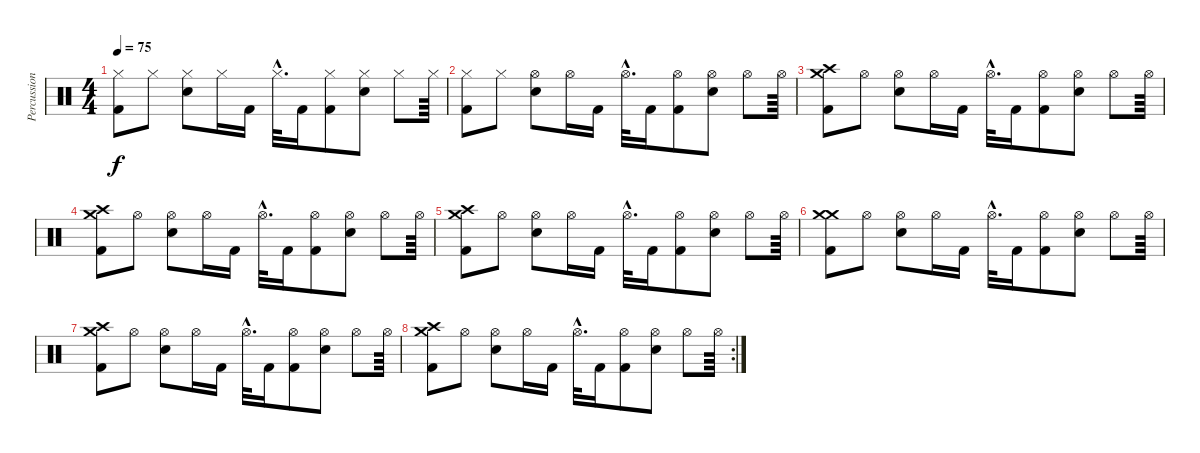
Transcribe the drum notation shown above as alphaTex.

\track ("Percussion" "Percussion") {instrument percussion}
\staff {score}
\articulation defaults
\ts (4 4)
\tempo 75
\clef neutral
\ks c
("Hi-Hat (closed)" "Kick (hit) 2").8{dy f} "Hi-Hat (closed)".8 ("Electric Snare (hit)" "Hi-Hat (closed)").8 "Hi-Hat (closed)".16 "Kick (hit) 2".16 "Hi-Hat (closed)"{hac}.32{d} "Kick (hit) 2".16 ("Kick (hit) 2" "Hi-Hat (closed)").8 ("Hi-Hat (closed)" "Electric Snare (hit)").8 "Hi-Hat (closed)".8 "Hi-Hat (closed)".64 |
("Hi-Hat (closed)" "Kick (hit) 2").8 "Hi-Hat (closed)".8 ("Electric Snare (hit)" "Hi-Hat (open)").8 "Hi-Hat (open)".16 "Kick (hit) 2".16 "Hi-Hat (open)"{hac}.32{d} "Kick (hit) 2".16 ("Kick (hit) 2" "Hi-Hat (open)").8 ("Hi-Hat (open)" "Electric Snare (hit)").8 "Hi-Hat (open)".8 "Hi-Hat (open)".64 |
("Crash high (hit)" "Kick (hit) 2" "Crash medium (hit)").8 "Hi-Hat (open)".8 ("Electric Snare (hit)" "Hi-Hat (open)").8 "Hi-Hat (open)".16 "Kick (hit) 2".16 "Hi-Hat (open)"{hac}.32{d} "Kick (hit) 2".16 ("Kick (hit) 2" "Hi-Hat (open)").8 ("Hi-Hat (open)" "Electric Snare (hit)").8 "Hi-Hat (open)".8 "Hi-Hat (open)".64 |
("Crash medium (hit)" "Kick (hit) 2" "Crash high (hit)").8 "Hi-Hat (open)".8 ("Electric Snare (hit)" "Hi-Hat (open)").8 "Hi-Hat (open)".16 "Kick (hit) 2".16 "Hi-Hat (open)"{hac}.32{d} "Kick (hit) 2".16 ("Kick (hit) 2" "Hi-Hat (open)").8 ("Hi-Hat (open)" "Electric Snare (hit)").8 "Hi-Hat (open)".8 "Hi-Hat (open)".64 |
("Crash high (hit)" "Kick (hit) 2" "Crash medium (hit)").8 "Hi-Hat (open)".8 ("Electric Snare (hit)" "Hi-Hat (open)").8 "Hi-Hat (open)".16 "Kick (hit) 2".16 "Hi-Hat (open)"{hac}.32{d} "Kick (hit) 2".16 ("Kick (hit) 2" "Hi-Hat (open)").8 ("Hi-Hat (open)" "Electric Snare (hit)").8 "Hi-Hat (open)".8 "Hi-Hat (open)".64 |
("Crash medium (hit)" "Kick (hit) 2" "Crash medium (hit)").8 "Hi-Hat (open)".8 ("Electric Snare (hit)" "Hi-Hat (open)").8 "Hi-Hat (open)".16 "Kick (hit) 2".16 "Hi-Hat (open)"{hac}.32{d} "Kick (hit) 2".16 ("Kick (hit) 2" "Hi-Hat (open)").8 ("Hi-Hat (open)" "Electric Snare (hit)").8 "Hi-Hat (open)".8 "Hi-Hat (open)".64 |
("Crash high (hit)" "Kick (hit) 2" "Crash medium (hit)").8 "Hi-Hat (open)".8 ("Electric Snare (hit)" "Hi-Hat (open)").8 "Hi-Hat (open)".16 "Kick (hit) 2".16 "Hi-Hat (open)"{hac}.32{d} "Kick (hit) 2".16 ("Kick (hit) 2" "Hi-Hat (open)").8 ("Hi-Hat (open)" "Electric Snare (hit)").8 "Hi-Hat (open)".8 "Hi-Hat (open)".64 |
\rc 2
("Crash high (hit)" "Kick (hit) 2" "Crash medium (hit)").8 "Hi-Hat (open)".8 ("Electric Snare (hit)" "Hi-Hat (open)").8 "Hi-Hat (open)".16 "Kick (hit) 2".16 "Hi-Hat (open)"{hac}.32{d} "Kick (hit) 2".16 ("Kick (hit) 2" "Hi-Hat (open)").8 ("Hi-Hat (open)" "Electric Snare (hit)").8 "Hi-Hat (open)".8 "Hi-Hat (open)".64
